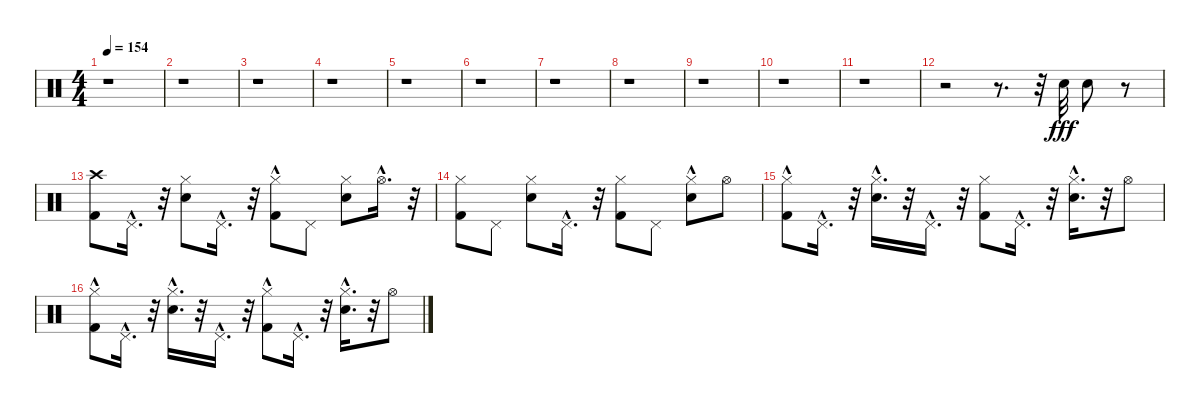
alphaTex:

\track "" {instrument percussion}
\staff {score}
\articulation defaults
\ts (4 4)
\tempo 154
\clef neutral
\ks c
r.1{dy fff} |
r.1 |
r.1 |
r.1 |
r.1 |
r.1 |
r.1 |
r.1 |
r.1 |
r.1 |
r.1 |
r.2 r.8{d} r.32 "Electric Snare (hit)".32 "Electric Snare (hit)".8 r.8 |
("Crash high (hit)" "Kick (hit) 2").8 "Pedal Hi-Hat (hit)"{hac}.16{d} r.32 ("Electric Snare (hit)" "Hi-Hat (closed)").8 "Pedal Hi-Hat (hit)"{hac}.16{d} r.32 ("Hi-Hat (closed)"{hac} "Kick (hit) 2").8 "Pedal Hi-Hat (hit)".8 ("Electric Snare (hit)" "Hi-Hat (closed)").8 "Hi-Hat (open)"{hac}.16{d} r.32 |
("Hi-Hat (closed)" "Kick (hit) 2").8 "Pedal Hi-Hat (hit)".8 ("Hi-Hat (closed)" "Electric Snare (hit)").8 "Pedal Hi-Hat (hit)"{hac}.16{d} r.32 ("Hi-Hat (closed)" "Kick (hit) 2").8 "Pedal Hi-Hat (hit)".8 ("Hi-Hat (closed)"{hac} "Electric Snare (hit)").8 "Hi-Hat (open)".8 |
("Kick (hit) 2" "Hi-Hat (closed)"{hac}).8 "Pedal Hi-Hat (hit)"{hac}.16{d} r.32 ("Electric Snare (hit)"{hac} "Hi-Hat (closed)").16{d} r.32 "Pedal Hi-Hat (hit)"{hac}.16{d} r.32 ("Kick (hit) 2" "Hi-Hat (closed)").8 "Pedal Hi-Hat (hit)"{hac}.16{d} r.32 ("Hi-Hat (closed)"{hac} "Electric Snare (hit)"{hac}).16{d} r.32 "Hi-Hat (open)".8 |
("Kick (hit) 2" "Hi-Hat (closed)"{hac}).8 "Pedal Hi-Hat (hit)"{hac}.16{d} r.32 ("Electric Snare (hit)"{hac} "Hi-Hat (closed)").16{d} r.32 "Pedal Hi-Hat (hit)"{hac}.16{d} r.32 ("Hi-Hat (closed)"{hac} "Kick (hit) 2").8 "Pedal Hi-Hat (hit)"{hac}.16{d} r.32 ("Hi-Hat (closed)"{hac} "Electric Snare (hit)"{hac}).16{d} r.32 "Hi-Hat (open)".8
